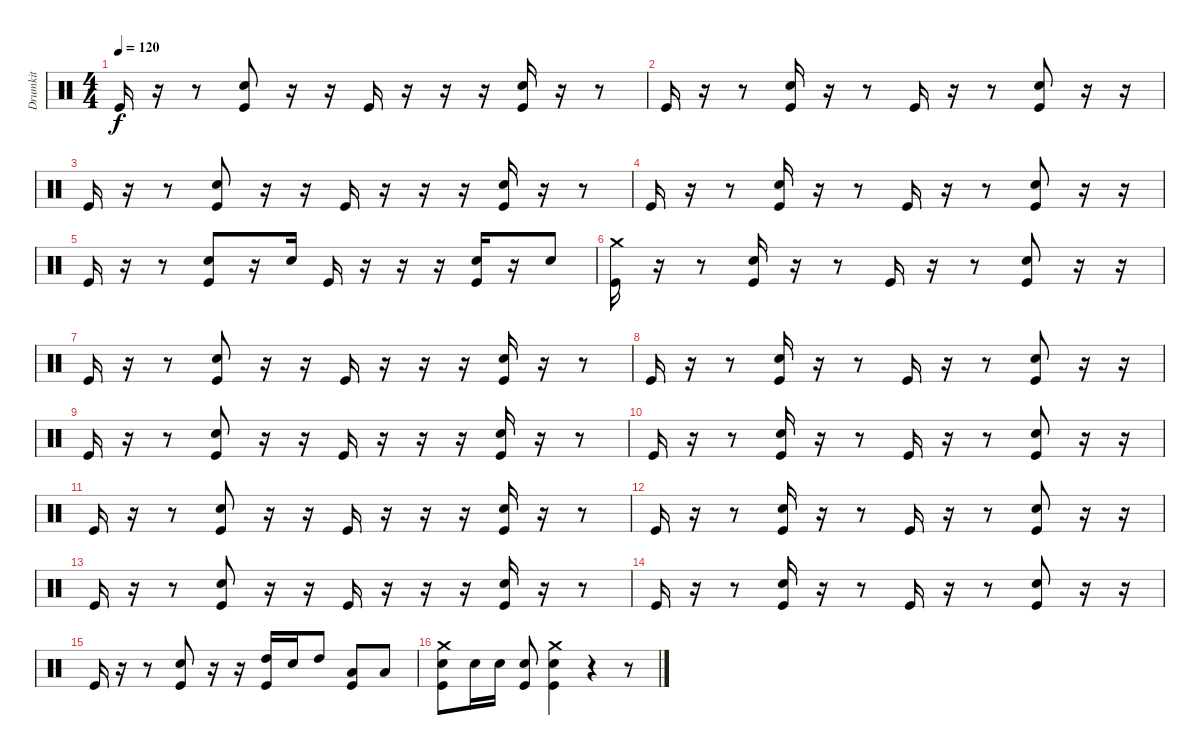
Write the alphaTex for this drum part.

\track ("Drumkit" "Drumkit") {instrument percussion}
\staff {score}
\articulation defaults
\ts (4 4)
\tempo 120
\clef neutral
\ks c "Kick (hit)".16{dy f}
r.16 r.8 ("Kick (hit)" "Snare (hit) 2").8 r.16 r.16 "Kick (hit)".16 r.16 r.16 r.16 ("Kick (hit)" "Snare (hit) 2").16 r.16 r.8 |
"Kick (hit)".16 r.16 r.8 ("Kick (hit)" "Snare (hit) 2").16 r.16 r.8 "Kick (hit)".16 r.16 r.8 ("Kick (hit)" "Snare (hit) 2").8 r.16 r.16 |
"Kick (hit)".16 r.16 r.8 ("Kick (hit)" "Snare (hit) 2").8 r.16 r.16 "Kick (hit)".16 r.16 r.16 r.16 ("Kick (hit)" "Snare (hit) 2").16 r.16 r.8 |
"Kick (hit)".16 r.16 r.8 ("Kick (hit)" "Snare (hit) 2").16 r.16 r.8 "Kick (hit)".16 r.16 r.8 ("Kick (hit)" "Snare (hit) 2").8 r.16 r.16 |
"Kick (hit)".16 r.16 r.8 ("Kick (hit)" "Snare (hit) 2").8 r.16 "Snare (hit) 2".16 "Kick (hit)".16 r.16 r.16 r.16 ("Kick (hit)" "Snare (hit) 2").16 r.16 "Snare (hit) 2".8 |
("Crash medium (hit)" "Kick (hit)").16 r.16 r.8 ("Kick (hit)" "Snare (hit) 2").16 r.16 r.8 "Kick (hit)".16 r.16 r.8 ("Kick (hit)" "Snare (hit) 2").8 r.16 r.16 |
"Kick (hit)".16 r.16 r.8 ("Kick (hit)" "Snare (hit) 2").8 r.16 r.16 "Kick (hit)".16 r.16 r.16 r.16 ("Kick (hit)" "Snare (hit) 2").16 r.16 r.8 |
"Kick (hit)".16 r.16 r.8 ("Kick (hit)" "Snare (hit) 2").16 r.16 r.8 "Kick (hit)".16 r.16 r.8 ("Kick (hit)" "Snare (hit) 2").8 r.16 r.16 |
"Kick (hit)".16 r.16 r.8 ("Kick (hit)" "Snare (hit) 2").8 r.16 r.16 "Kick (hit)".16 r.16 r.16 r.16 ("Kick (hit)" "Snare (hit) 2").16 r.16 r.8 |
"Kick (hit)".16 r.16 r.8 ("Kick (hit)" "Snare (hit) 2").16 r.16 r.8 "Kick (hit)".16 r.16 r.8 ("Kick (hit)" "Snare (hit) 2").8 r.16 r.16 |
"Kick (hit)".16 r.16 r.8 ("Kick (hit)" "Snare (hit) 2").8 r.16 r.16 "Kick (hit)".16 r.16 r.16 r.16 ("Kick (hit)" "Snare (hit) 2").16 r.16 r.8 |
"Kick (hit)".16 r.16 r.8 ("Kick (hit)" "Snare (hit) 2").16 r.16 r.8 "Kick (hit)".16 r.16 r.8 ("Kick (hit)" "Snare (hit) 2").8 r.16 r.16 |
"Kick (hit)".16 r.16 r.8 ("Kick (hit)" "Snare (hit) 2").8 r.16 r.16 "Kick (hit)".16 r.16 r.16 r.16 ("Kick (hit)" "Snare (hit) 2").16 r.16 r.8 |
"Kick (hit)".16 r.16 r.8 ("Kick (hit)" "Snare (hit) 2").16 r.16 r.8 "Kick (hit)".16 r.16 r.8 ("Kick (hit)" "Snare (hit) 2").8 r.16 r.16 |
"Kick (hit)".16 r.16 r.8 ("Kick (hit)" "Snare (hit) 2").8 r.16 r.16 ("High Tom (hit)" "Kick (hit)").16 "Snare (hit) 2".16 "High Tom (hit)".8 ("Low Tom (hit)" "Kick (hit)").8 "Low Tom (hit)".8 |
("Crash medium (hit)" "Kick (hit)" "Snare (hit) 2").8 "Snare (hit) 2".16 "Snare (hit) 2".16 ("Kick (hit)" "Snare (hit) 2").8 ("Crash medium (hit)" "Kick (hit)" "Snare (hit) 2").4 r.4 r.8
